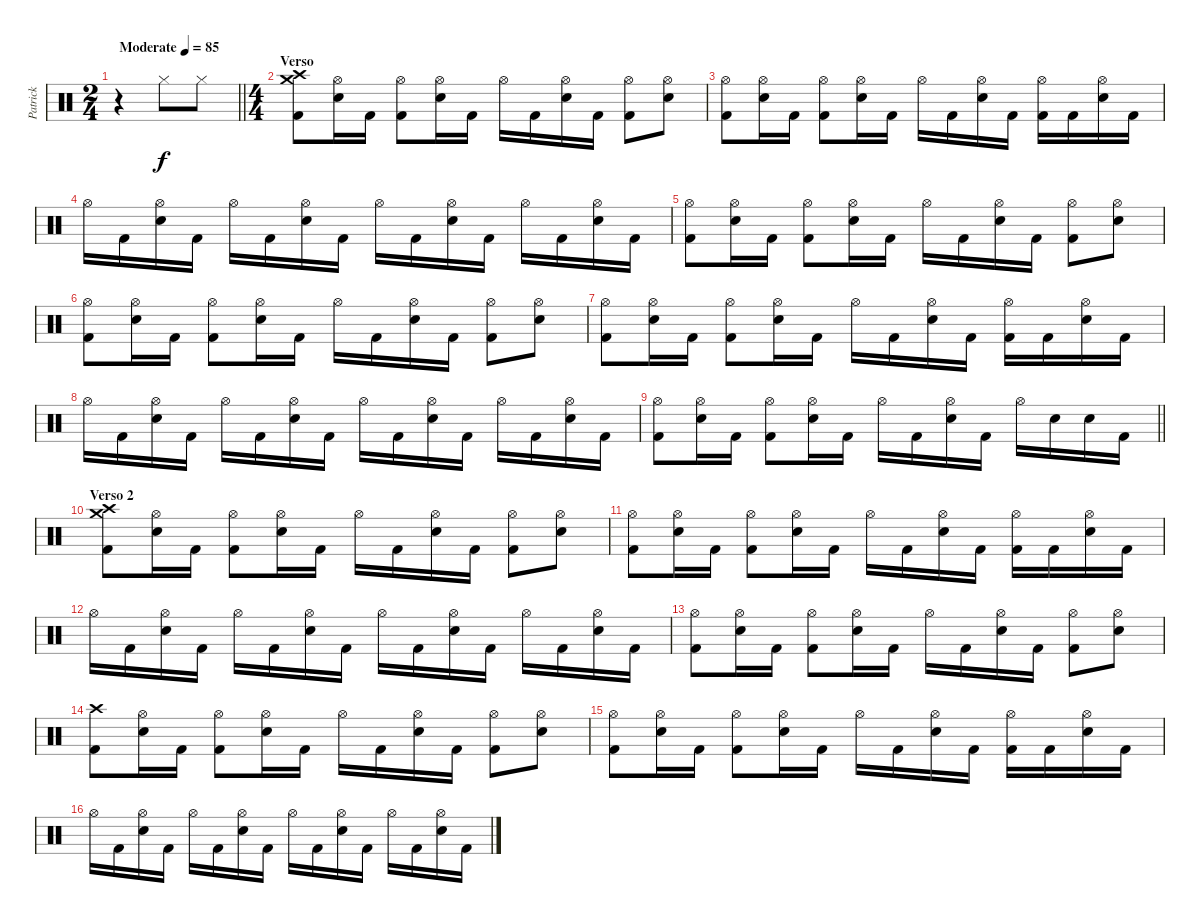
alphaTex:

\track ("Patrick" "Patrick") {instrument percussion}
\staff {score}
\articulation defaults
\ts (2 4)
\tempo (85 "Moderate")
\clef neutral
\barLineRight lightlight
\ks c
r.4{dy f} "Hi-Hat (closed)".8 "Hi-Hat (closed)".8 |
\ts (4 4)
\section ("" "Verso")
("Crash medium (hit)" "Crash high (hit)" "Kick (hit) 2").8 ("Hi-Hat (open)" "Electric Snare (hit)").16 "Kick (hit) 2".16 ("Hi-Hat (open)" "Kick (hit) 2").8 ("Hi-Hat (open)" "Electric Snare (hit)").16 "Kick (hit) 2".16 "Hi-Hat (open)".16 "Kick (hit) 2".16 ("Hi-Hat (open)" "Electric Snare (hit)").16 "Kick (hit) 2".16 ("Hi-Hat (open)" "Kick (hit) 2").8 ("Hi-Hat (open)" "Electric Snare (hit)").8 |
("Hi-Hat (open)" "Kick (hit) 2").8 ("Hi-Hat (open)" "Electric Snare (hit)").16 "Kick (hit) 2".16 ("Hi-Hat (open)" "Kick (hit) 2").8 ("Hi-Hat (open)" "Electric Snare (hit)").16 "Kick (hit) 2".16 "Hi-Hat (open)".16 "Kick (hit) 2".16 ("Hi-Hat (open)" "Electric Snare (hit)").16 "Kick (hit) 2".16 ("Hi-Hat (open)" "Kick (hit) 2").16 "Kick (hit) 2".16 ("Hi-Hat (open)" "Electric Snare (hit)").16 "Kick (hit) 2".16 |
"Hi-Hat (open)".16 "Kick (hit) 2".16 ("Hi-Hat (open)" "Electric Snare (hit)").16 "Kick (hit) 2".16 "Hi-Hat (open)".16 "Kick (hit) 2".16 ("Hi-Hat (open)" "Electric Snare (hit)").16 "Kick (hit) 2".16 "Hi-Hat (open)".16 "Kick (hit) 2".16 ("Hi-Hat (open)" "Electric Snare (hit)").16 "Kick (hit) 2".16 "Hi-Hat (open)".16 "Kick (hit) 2".16 ("Hi-Hat (open)" "Electric Snare (hit)").16 "Kick (hit) 2".16 |
("Hi-Hat (open)" "Kick (hit) 2").8 ("Hi-Hat (open)" "Electric Snare (hit)").16 "Kick (hit) 2".16 ("Hi-Hat (open)" "Kick (hit) 2").8 ("Hi-Hat (open)" "Electric Snare (hit)").16 "Kick (hit) 2".16 "Hi-Hat (open)".16 "Kick (hit) 2".16 ("Hi-Hat (open)" "Electric Snare (hit)").16 "Kick (hit) 2".16 ("Hi-Hat (open)" "Kick (hit) 2").8 ("Hi-Hat (open)" "Electric Snare (hit)").8 |
("Hi-Hat (open)" "Kick (hit) 2").8 ("Hi-Hat (open)" "Electric Snare (hit)").16 "Kick (hit) 2".16 ("Hi-Hat (open)" "Kick (hit) 2").8 ("Hi-Hat (open)" "Electric Snare (hit)").16 "Kick (hit) 2".16 "Hi-Hat (open)".16 "Kick (hit) 2".16 ("Hi-Hat (open)" "Electric Snare (hit)").16 "Kick (hit) 2".16 ("Hi-Hat (open)" "Kick (hit) 2").8 ("Hi-Hat (open)" "Electric Snare (hit)").8 |
("Hi-Hat (open)" "Kick (hit) 2").8 ("Hi-Hat (open)" "Electric Snare (hit)").16 "Kick (hit) 2".16 ("Hi-Hat (open)" "Kick (hit) 2").8 ("Hi-Hat (open)" "Electric Snare (hit)").16 "Kick (hit) 2".16 "Hi-Hat (open)".16 "Kick (hit) 2".16 ("Hi-Hat (open)" "Electric Snare (hit)").16 "Kick (hit) 2".16 ("Hi-Hat (open)" "Kick (hit) 2").16 "Kick (hit) 2".16 ("Hi-Hat (open)" "Electric Snare (hit)").16 "Kick (hit) 2".16 |
"Hi-Hat (open)".16 "Kick (hit) 2".16 ("Hi-Hat (open)" "Electric Snare (hit)").16 "Kick (hit) 2".16 "Hi-Hat (open)".16 "Kick (hit) 2".16 ("Hi-Hat (open)" "Electric Snare (hit)").16 "Kick (hit) 2".16 "Hi-Hat (open)".16 "Kick (hit) 2".16 ("Hi-Hat (open)" "Electric Snare (hit)").16 "Kick (hit) 2".16 "Hi-Hat (open)".16 "Kick (hit) 2".16 ("Hi-Hat (open)" "Electric Snare (hit)").16 "Kick (hit) 2".16 |
\barLineRight lightlight
("Hi-Hat (open)" "Kick (hit) 2").8 ("Hi-Hat (open)" "Electric Snare (hit)").16 "Kick (hit) 2".16 ("Hi-Hat (open)" "Kick (hit) 2").8 ("Hi-Hat (open)" "Electric Snare (hit)").16 "Kick (hit) 2".16 "Hi-Hat (open)".16 "Kick (hit) 2".16 ("Hi-Hat (open)" "Electric Snare (hit)").16 "Kick (hit) 2".16 "Hi-Hat (open)".16 "Electric Snare (hit)".16 "Electric Snare (hit)".16 "Kick (hit) 2".16 |
\section ("" "Verso 2")
("Crash medium (hit)" "Crash high (hit)" "Kick (hit) 2").8 ("Hi-Hat (open)" "Electric Snare (hit)").16 "Kick (hit) 2".16 ("Hi-Hat (open)" "Kick (hit) 2").8 ("Hi-Hat (open)" "Electric Snare (hit)").16 "Kick (hit) 2".16 "Hi-Hat (open)".16 "Kick (hit) 2".16 ("Hi-Hat (open)" "Electric Snare (hit)").16 "Kick (hit) 2".16 ("Hi-Hat (open)" "Kick (hit) 2").8 ("Hi-Hat (open)" "Electric Snare (hit)").8 |
("Hi-Hat (open)" "Kick (hit) 2").8 ("Hi-Hat (open)" "Electric Snare (hit)").16 "Kick (hit) 2".16 ("Hi-Hat (open)" "Kick (hit) 2").8 ("Hi-Hat (open)" "Electric Snare (hit)").16 "Kick (hit) 2".16 "Hi-Hat (open)".16 "Kick (hit) 2".16 ("Hi-Hat (open)" "Electric Snare (hit)").16 "Kick (hit) 2".16 ("Hi-Hat (open)" "Kick (hit) 2").16 "Kick (hit) 2".16 ("Hi-Hat (open)" "Electric Snare (hit)").16 "Kick (hit) 2".16 |
"Hi-Hat (open)".16 "Kick (hit) 2".16 ("Hi-Hat (open)" "Electric Snare (hit)").16 "Kick (hit) 2".16 "Hi-Hat (open)".16 "Kick (hit) 2".16 ("Hi-Hat (open)" "Electric Snare (hit)").16 "Kick (hit) 2".16 "Hi-Hat (open)".16 "Kick (hit) 2".16 ("Hi-Hat (open)" "Electric Snare (hit)").16 "Kick (hit) 2".16 "Hi-Hat (open)".16 "Kick (hit) 2".16 ("Hi-Hat (open)" "Electric Snare (hit)").16 "Kick (hit) 2".16 |
("Hi-Hat (open)" "Kick (hit) 2").8 ("Hi-Hat (open)" "Electric Snare (hit)").16 "Kick (hit) 2".16 ("Hi-Hat (open)" "Kick (hit) 2").8 ("Hi-Hat (open)" "Electric Snare (hit)").16 "Kick (hit) 2".16 "Hi-Hat (open)".16 "Kick (hit) 2".16 ("Hi-Hat (open)" "Electric Snare (hit)").16 "Kick (hit) 2".16 ("Hi-Hat (open)" "Kick (hit) 2").8 ("Hi-Hat (open)" "Electric Snare (hit)").8 |
("Crash high (hit)" "Kick (hit) 2").8 ("Hi-Hat (open)" "Electric Snare (hit)").16 "Kick (hit) 2".16 ("Hi-Hat (open)" "Kick (hit) 2").8 ("Hi-Hat (open)" "Electric Snare (hit)").16 "Kick (hit) 2".16 "Hi-Hat (open)".16 "Kick (hit) 2".16 ("Hi-Hat (open)" "Electric Snare (hit)").16 "Kick (hit) 2".16 ("Hi-Hat (open)" "Kick (hit) 2").8 ("Hi-Hat (open)" "Electric Snare (hit)").8 |
("Hi-Hat (open)" "Kick (hit) 2").8 ("Hi-Hat (open)" "Electric Snare (hit)").16 "Kick (hit) 2".16 ("Hi-Hat (open)" "Kick (hit) 2").8 ("Hi-Hat (open)" "Electric Snare (hit)").16 "Kick (hit) 2".16 "Hi-Hat (open)".16 "Kick (hit) 2".16 ("Hi-Hat (open)" "Electric Snare (hit)").16 "Kick (hit) 2".16 ("Hi-Hat (open)" "Kick (hit) 2").16 "Kick (hit) 2".16 ("Hi-Hat (open)" "Electric Snare (hit)").16 "Kick (hit) 2".16 |
"Hi-Hat (open)".16 "Kick (hit) 2".16 ("Hi-Hat (open)" "Electric Snare (hit)").16 "Kick (hit) 2".16 "Hi-Hat (open)".16 "Kick (hit) 2".16 ("Hi-Hat (open)" "Electric Snare (hit)").16 "Kick (hit) 2".16 "Hi-Hat (open)".16 "Kick (hit) 2".16 ("Hi-Hat (open)" "Electric Snare (hit)").16 "Kick (hit) 2".16 "Hi-Hat (open)".16 "Kick (hit) 2".16 ("Hi-Hat (open)" "Electric Snare (hit)").16 "Kick (hit) 2".16
